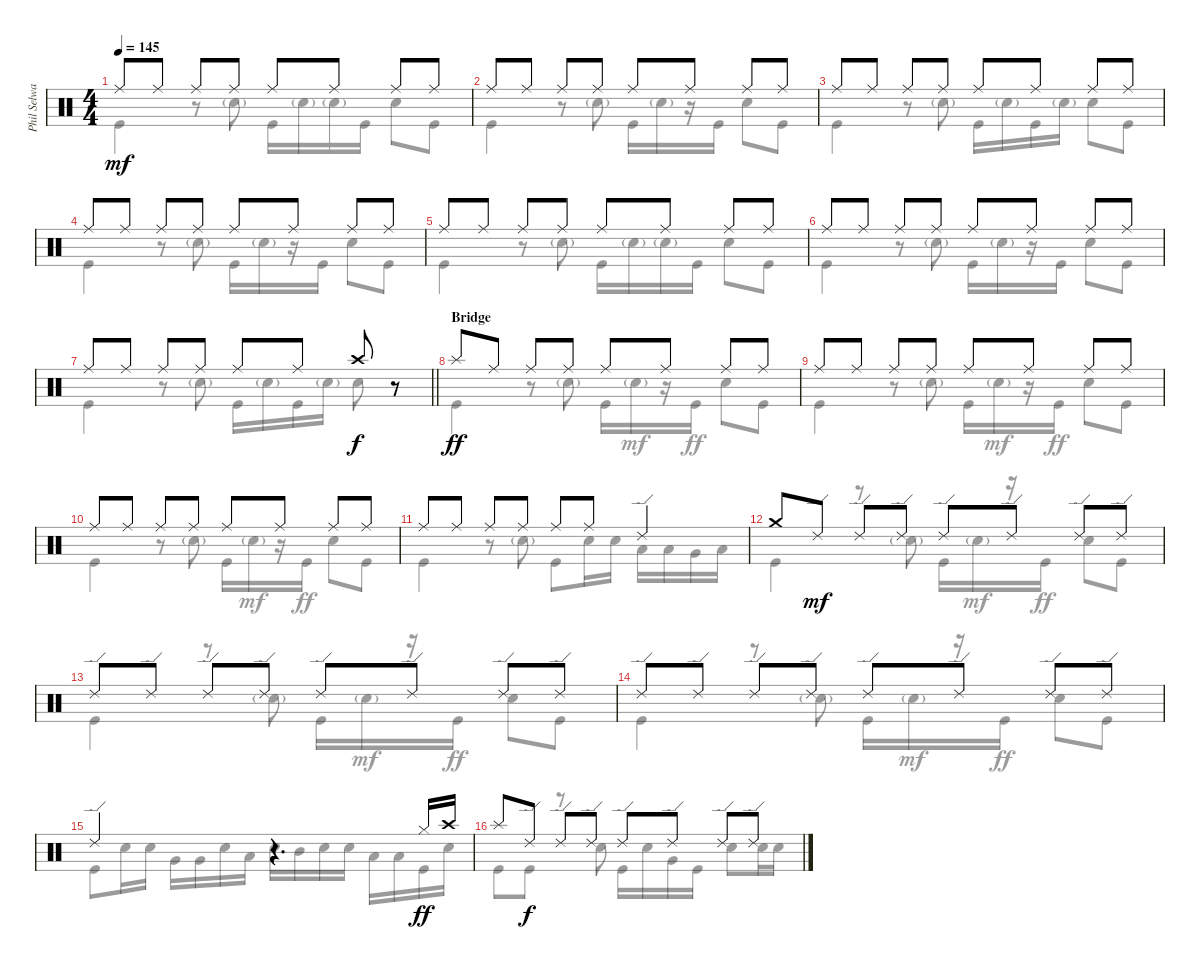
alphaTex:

\track ("Phil Selway" "Phil Selwa") {instrument percussion}
\staff {score}
\articulation defaults
\voice
\ts (4 4)
\tempo 145
\clef neutral
\ks c "Ride (middle)".8{dy mf} "Ride (middle)".8 "Ride (middle)".8 "Ride (middle)".8 "Ride (middle)".8 "Ride (middle)".8 "Ride (middle)".8 "Ride (middle)".8
|
"Ride (middle)".8 "Ride (middle)".8 "Ride (middle)".8 "Ride (middle)".8 "Ride (middle)".8 "Ride (middle)".8 "Ride (middle)".8 "Ride (middle)".8 |
"Ride (middle)".8 "Ride (middle)".8 "Ride (middle)".8 "Ride (middle)".8 "Ride (middle)".8 "Ride (middle)".8 "Ride (middle)".8 "Ride (middle)".8 |
"Ride (middle)".8 "Ride (middle)".8 "Ride (middle)".8 "Ride (middle)".8 "Ride (middle)".8 "Ride (middle)".8 "Ride (middle)".8 "Ride (middle)".8 |
"Ride (middle)".8 "Ride (middle)".8 "Ride (middle)".8 "Ride (middle)".8 "Ride (middle)".8 "Ride (middle)".8 "Ride (middle)".8 "Ride (middle)".8 |
"Ride (middle)".8 "Ride (middle)".8 "Ride (middle)".8 "Ride (middle)".8 "Ride (middle)".8 "Ride (middle)".8 "Ride (middle)".8 "Ride (middle)".8 |
\barLineRight lightlight "Ride (middle)".8 "Ride (middle)".8 "Ride (middle)".8 "Ride (middle)".8 "Ride (middle)".8 "Ride (middle)".8 "Crash high (hit)".8{dy f}
r.8 |
\section ("" "Bridge")
"Splash (hit)".8{dy ff} "Ride (middle)".8 "Ride (middle)".8 "Ride (middle)".8 "Ride (middle)".8 "Ride (middle)".8 "Ride (middle)".8 "Ride (middle)".8 |
"Ride (middle)".8 "Ride (middle)".8 "Ride (middle)".8 "Ride (middle)".8 "Ride (middle)".8 "Ride (middle)".8 "Ride (middle)".8 "Ride (middle)".8 |
"Ride (middle)".8 "Ride (middle)".8 "Ride (middle)".8 "Ride (middle)".8 "Ride (middle)".8 "Ride (middle)".8 "Ride (middle)".8 "Ride (middle)".8 |
"Ride (middle)".8 "Ride (middle)".8 "Ride (middle)".8 "Ride (middle)".8 "Ride (middle)".8 "Ride (middle)".8 "Ride (edge) 2".4 |
"Crash medium (hit)".8 "Ride (edge) 2".8{dy mf} "Ride (edge) 2".8 "Ride (edge) 2".8 "Ride (edge) 2".8 "Ride (edge) 2".8 "Ride (edge) 2".8 "Ride (edge) 2".8 |
"Ride (edge) 2".8 "Ride (edge) 2".8 "Ride (edge) 2".8 "Ride (edge) 2".8 "Ride (edge) 2".8 "Ride (edge) 2".8 "Ride (edge) 2".8 "Ride (edge) 2".8 |
"Ride (edge) 2".8 "Ride (edge) 2".8 "Ride (edge) 2".8 "Ride (edge) 2".8 "Ride (edge) 2".8 "Ride (edge) 2".8 "Ride (edge) 2".8 "Ride (edge) 2".8 |
"Ride (edge) 2".2 r.4{d} "Hi-Hat (closed)".16{dy ff} "Crash high (hit)".16 |
"Splash (hit)".8 "Ride (edge) 2".8{dy f} "Ride (edge) 2".8 "Ride (edge) 2".8 "Ride (edge) 2".8 "Ride (edge) 2".8 "Ride (edge) 2".8 "Ride (edge) 2".8
\voice
\clef neutral
\ottava regular
\simile none
\ks c "Kick (hit)".4{dy mf}
r.8 "Snare (hit) 2"{g}.8 "Kick (hit)".16 "Snare (hit) 2"{g}.16 "Snare (hit) 2"{g}.16 "Kick (hit)".16 "Snare (hit) 2".8 "Kick (hit)".8 |
"Kick (hit)".4 r.8 "Snare (hit) 2"{g}.8 "Kick (hit)".16 "Snare (hit) 2"{g}.16 r.16 "Kick (hit)".16 "Snare (hit) 2".8 "Kick (hit)".8 |
"Kick (hit)".4 r.8 "Snare (hit) 2"{g}.8 "Kick (hit)".16 "Snare (hit) 2"{g}.16 "Kick (hit)".16 "Snare (hit) 2"{g}.16 "Snare (hit) 2".8 "Kick (hit)".8 |
"Kick (hit)".4 r.8 "Snare (hit) 2"{g}.8 "Kick (hit)".16 "Snare (hit) 2"{g}.16 r.16 "Kick (hit)".16 "Snare (hit) 2".8 "Kick (hit)".8 |
"Kick (hit)".4 r.8 "Snare (hit) 2"{g}.8 "Kick (hit)".16 "Snare (hit) 2"{g}.16 "Snare (hit) 2"{g}.16 "Kick (hit)".16 "Snare (hit) 2".8 "Kick (hit)".8 |
"Kick (hit)".4 r.8 "Snare (hit) 2"{g}.8 "Kick (hit)".16 "Snare (hit) 2"{g}.16 r.16 "Kick (hit)".16 "Snare (hit) 2".8 "Kick (hit)".8 |
\barLineRight lightlight "Kick (hit)".4
r.8 "Snare (hit) 2"{g}.8 "Kick (hit)".16 "Snare (hit) 2"{g}.16 "Kick (hit)".16 "Snare (hit) 2"{g}.16 "Snare (hit) 2".8{dy f} r.8 |
"Kick (hit)".4{dy ff} r.8 "Snare (hit) 2"{g}.8 "Kick (hit)".16 "Snare (hit) 2"{g}.16{dy mf} r.16 "Kick (hit)".16{dy ff} "Snare (hit) 2".8 "Kick (hit)".8 |
"Kick (hit)".4 r.8 "Snare (hit) 2"{g}.8 "Kick (hit)".16 "Snare (hit) 2"{g}.16{dy mf} r.16 "Kick (hit)".16{dy ff} "Snare (hit) 2".8 "Kick (hit)".8 |
"Kick (hit)".4 r.8 "Snare (hit) 2"{g}.8 "Kick (hit)".16 "Snare (hit) 2"{g}.16{dy mf} r.16 "Kick (hit)".16{dy ff} "Snare (hit) 2".8 "Kick (hit)".8 |
"Kick (hit)".4 r.8 "Snare (hit) 2"{g}.8 "Kick (hit)".8 "Snare (hit) 2".16 "Snare (hit) 2".16 "Low Tom (hit)".16 "Low Tom (hit)".16 "Very Low Tom (hit)".16 "Low Floor Tom (hit)".16 |
"Kick (hit)".4 r.8 "Snare (hit) 2"{g}.8 "Kick (hit)".16 "Snare (hit) 2"{g}.16{dy mf} r.16 "Kick (hit)".16{dy ff} "Snare (hit) 2".8 "Kick (hit)".8 |
"Kick (hit)".4 r.8 "Snare (hit) 2"{g}.8 "Kick (hit)".16 "Snare (hit) 2"{g}.16{dy mf} r.16 "Kick (hit)".16{dy ff} "Snare (hit) 2".8 "Kick (hit)".8 |
"Kick (hit)".4 r.8 "Snare (hit) 2"{g}.8 "Kick (hit)".16 "Snare (hit) 2"{g}.16{dy mf} r.16 "Kick (hit)".16{dy ff} "Snare (hit) 2".8 "Kick (hit)".8 |
"Kick (hit)".8 "Snare (hit) 2".16 "Snare (hit) 2".16 "Very Low Tom (hit)".16 "Very Low Tom (hit)".16 "Snare (hit) 2".16 "Low Tom (hit)".16 "Snare (hit) 2".16 "Mid Tom (hit)".16 "Snare (hit) 2".16 "Snare (hit) 2".16 "Low Tom (hit)".16 "Low Tom (hit)".16 "Kick (hit)".16 "Snare (hit) 2".16 |
"Kick (hit)".8 "Kick (hit)".8 r.8 "Snare (hit) 2".8 "Kick (hit)".16 "Snare (hit) 2".16 "Very Low Tom (hit)".16 "Kick (hit)".16 "Snare (hit) 2".8 "Snare (hit) 2".16 "Snare (hit) 2".16
